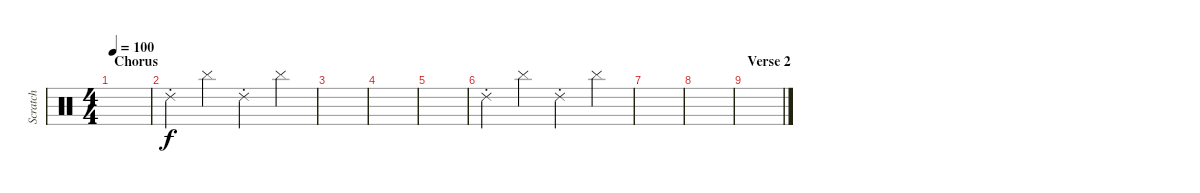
\track ("Scratch" "Scratch") {instrument percussion}
\staff {score}
\articulation defaults
\ts (4 4)
\section ("" "Chorus")
\tempo 100
\clef neutral
\ks c
|
"Ride (choke) 2".4 "Cymbal (hit)".4 "Ride (choke) 2".4 "Cymbal (hit)".4 |
|
|
|
"Ride (choke) 2".4 "Cymbal (hit)".4 "Ride (choke) 2".4 "Cymbal (hit)".4 |
|
|
\section ("" "Verse 2")
